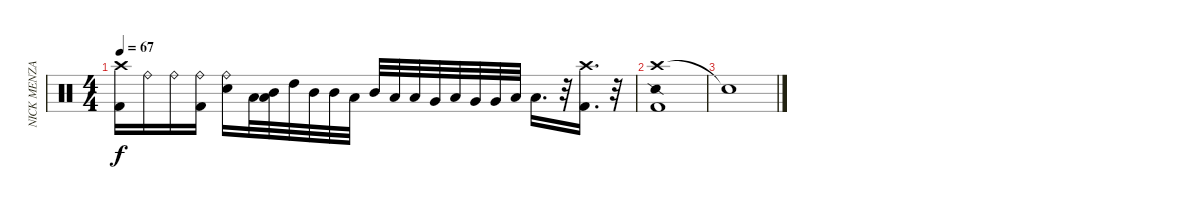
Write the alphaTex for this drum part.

\track ("NICK MENZA" "NICK MENZA") {instrument percussion}
\staff {score}
\articulation defaults
\ts (4 4)
\tempo 67
\clef neutral
\ks c
("Crash high (hit)" "Kick (hit) 2").16{dy f} "Ride (bell)".16 "Ride (bell)".16 ("Kick (hit) 2" "Ride (bell)").16 ("Snare (hit) 2" "Ride (bell)").16 "Low Tom (hit)".32 ("Mid Tom (hit)" "Low Tom (hit)").32 "High Tom (hit)".32 "Mid Tom (hit)".32 "Mid Tom (hit)".32 "Low Tom (hit)".32 "Mid Tom (hit)".32 "Low Tom (hit)".32 "Low Tom (hit)".32 "Very Low Tom (hit)".32 "Low Tom (hit)".32 "Very Low Tom (hit)".32 "Very Low Tom (hit)".32 "Low Floor Tom (hit)".32 "Low Tom (hit)".16{d} r.32 ("Kick (hit) 2" "Crash high (hit)").16{d} r.32 |
("Crash high (hit)" "Kick (hit) 2" "Snare (side stick) 2").1 |
"Snare (hit)"{t}.1
